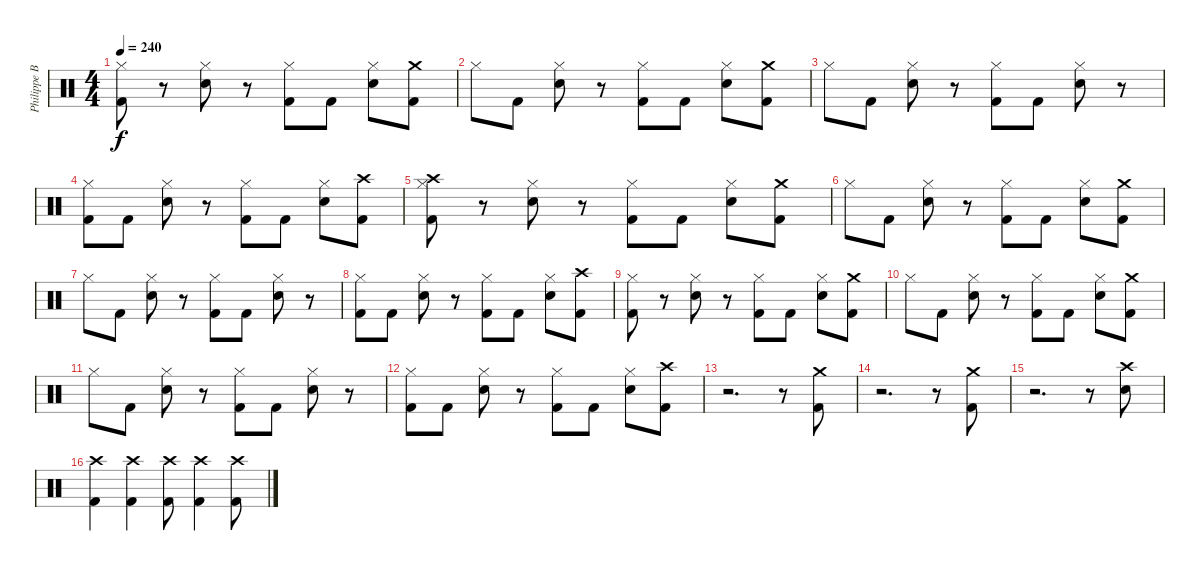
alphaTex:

\track ("Philippe Borda" "Philippe B") {instrument percussion}
\staff {score}
\articulation defaults
\ts (4 4)
\tempo 240
\clef neutral
\ks c
("Hi-Hat (closed)" "Kick (hit) 2").8{dy f} r.8 ("Hi-Hat (closed)" "Snare (hit) 2").8 r.8 ("Hi-Hat (closed)" "Kick (hit) 2").8 "Kick (hit) 2".8 ("Hi-Hat (closed)" "Snare (hit) 2").8 ("Crash medium (hit)" "Kick (hit) 2").8 |
"Hi-Hat (closed)".8 "Kick (hit) 2".8 ("Hi-Hat (closed)" "Snare (hit) 2").8 r.8 ("Hi-Hat (closed)" "Kick (hit) 2").8 "Kick (hit) 2".8 ("Hi-Hat (closed)" "Snare (hit) 2").8 ("Crash medium (hit)" "Kick (hit) 2").8 |
"Hi-Hat (closed)".8 "Kick (hit) 2".8 ("Hi-Hat (closed)" "Snare (hit) 2").8 r.8 ("Hi-Hat (closed)" "Kick (hit) 2").8 "Kick (hit) 2".8 ("Hi-Hat (closed)" "Snare (hit) 2").8 r.8 |
("Hi-Hat (closed)" "Kick (hit) 2").8 "Kick (hit) 2".8 ("Hi-Hat (closed)" "Snare (hit) 2").8 r.8 ("Hi-Hat (closed)" "Kick (hit) 2").8 "Kick (hit) 2".8 ("Hi-Hat (closed)" "Snare (hit) 2").8 ("Crash high (hit)" "Kick (hit) 2").8 |
("Crash high (hit)" "Hi-Hat (closed)" "Kick (hit) 2").8 r.8 ("Hi-Hat (closed)" "Snare (hit) 2").8 r.8 ("Hi-Hat (closed)" "Kick (hit) 2").8 "Kick (hit) 2".8 ("Hi-Hat (closed)" "Snare (hit) 2").8 ("Crash medium (hit)" "Kick (hit) 2").8 |
"Hi-Hat (closed)".8 "Kick (hit) 2".8 ("Hi-Hat (closed)" "Snare (hit) 2").8 r.8 ("Hi-Hat (closed)" "Kick (hit) 2").8 "Kick (hit) 2".8 ("Hi-Hat (closed)" "Snare (hit) 2").8 ("Crash medium (hit)" "Kick (hit) 2").8 |
"Hi-Hat (closed)".8 "Kick (hit) 2".8 ("Hi-Hat (closed)" "Snare (hit) 2").8 r.8 ("Hi-Hat (closed)" "Kick (hit) 2").8 "Kick (hit) 2".8 ("Hi-Hat (closed)" "Snare (hit) 2").8 r.8 |
("Hi-Hat (closed)" "Kick (hit) 2").8 "Kick (hit) 2".8 ("Hi-Hat (closed)" "Snare (hit) 2").8 r.8 ("Hi-Hat (closed)" "Kick (hit) 2").8 "Kick (hit) 2".8 ("Hi-Hat (closed)" "Snare (hit) 2").8 ("Crash high (hit)" "Kick (hit) 2").8 |
("Hi-Hat (closed)" "Kick (hit) 2").8 r.8 ("Hi-Hat (closed)" "Snare (hit) 2").8 r.8 ("Hi-Hat (closed)" "Kick (hit) 2").8 "Kick (hit) 2".8 ("Hi-Hat (closed)" "Snare (hit) 2").8 ("Crash medium (hit)" "Kick (hit) 2").8 |
"Hi-Hat (closed)".8 "Kick (hit) 2".8 ("Hi-Hat (closed)" "Snare (hit) 2").8 r.8 ("Hi-Hat (closed)" "Kick (hit) 2").8 "Kick (hit) 2".8 ("Hi-Hat (closed)" "Snare (hit) 2").8 ("Crash medium (hit)" "Kick (hit) 2").8 |
"Hi-Hat (closed)".8 "Kick (hit) 2".8 ("Hi-Hat (closed)" "Snare (hit) 2").8 r.8 ("Hi-Hat (closed)" "Kick (hit) 2").8 "Kick (hit) 2".8 ("Hi-Hat (closed)" "Snare (hit) 2").8 r.8 |
("Hi-Hat (closed)" "Kick (hit) 2").8 "Kick (hit) 2".8 ("Hi-Hat (closed)" "Snare (hit) 2").8 r.8 ("Hi-Hat (closed)" "Kick (hit) 2").8 "Kick (hit) 2".8 ("Hi-Hat (closed)" "Snare (hit) 2").8 ("Crash high (hit)" "Kick (hit) 2").8 |
r.2{d} r.8 ("Crash medium (hit)" "Kick (hit) 2").8 |
r.2{d} r.8 ("Crash medium (hit)" "Kick (hit) 2").8 |
r.2{d} r.8 ("Crash high (hit)" "Snare (hit) 2").8 |
("Crash high (hit)" "Kick (hit) 2").4 ("Crash high (hit)" "Kick (hit) 2").4 ("Crash high (hit)" "Kick (hit) 2").8 ("Crash high (hit)" "Kick (hit) 2").4 ("Crash high (hit)" "Kick (hit) 2").8
